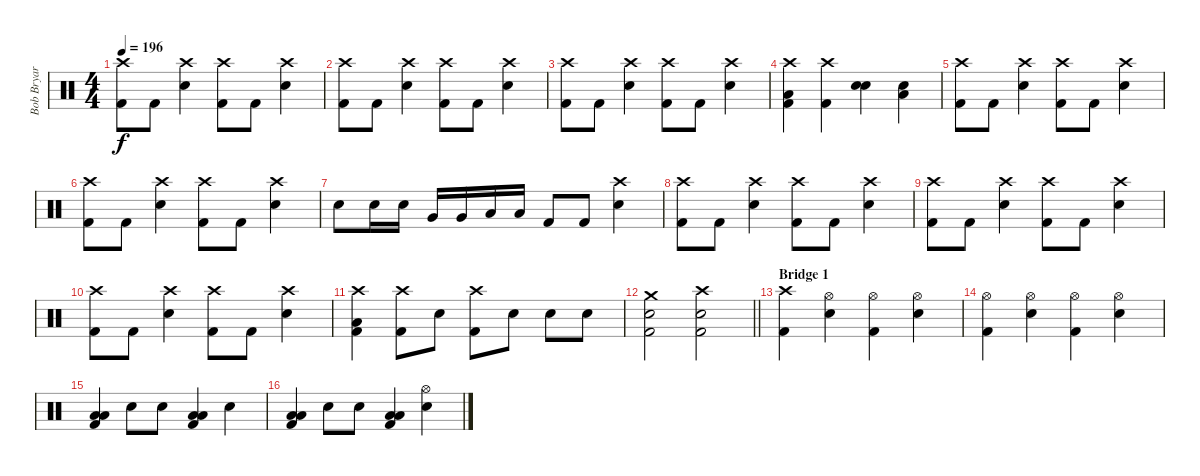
\track ("Bob Bryar (percussion)" "Bob Bryar ") {instrument percussion}
\staff {score}
\articulation defaults
\ts (4 4)
\tempo 196
\clef neutral
\ks c
("Crash high (hit)" "Kick (hit) 2").8{dy f} "Kick (hit) 2".8 ("Crash high (hit)" "Electric Snare (hit)").4 ("Crash high (hit)" "Kick (hit) 2").8 "Kick (hit) 2".8 ("Crash high (hit)" "Electric Snare (hit)").4 |
("Crash high (hit)" "Kick (hit) 2").8 "Kick (hit) 2".8 ("Crash high (hit)" "Electric Snare (hit)").4 ("Crash high (hit)" "Kick (hit) 2").8 "Kick (hit) 2".8 ("Crash high (hit)" "Electric Snare (hit)").4 |
("Crash high (hit)" "Kick (hit) 2").8 "Kick (hit) 2".8 ("Crash high (hit)" "Electric Snare (hit)").4 ("Crash high (hit)" "Kick (hit) 2").8 "Kick (hit) 2".8 ("Crash high (hit)" "Electric Snare (hit)").4 |
("Crash high (hit)" "Low Floor Tom (hit)" "Kick (hit) 2").4 ("Crash high (hit)" "Kick (hit) 2").4 ("Electric Snare (hit)" "Electric Snare (hit)").4 ("Electric Snare (hit)" "Low Floor Tom (hit)").4 |
("Crash high (hit)" "Kick (hit) 2").8 "Kick (hit) 2".8 ("Crash high (hit)" "Electric Snare (hit)").4 ("Crash high (hit)" "Kick (hit) 2").8 "Kick (hit) 2".8 ("Crash high (hit)" "Electric Snare (hit)").4 |
("Crash high (hit)" "Kick (hit) 2").8 "Kick (hit) 2".8 ("Crash high (hit)" "Electric Snare (hit)").4 ("Crash high (hit)" "Kick (hit) 2").8 "Kick (hit) 2".8 ("Crash high (hit)" "Electric Snare (hit)").4 |
"Electric Snare (hit)".8 "Electric Snare (hit)".16 "Electric Snare (hit)".16 "Very Low Tom (hit)".16 "Very Low Tom (hit)".16 "Low Floor Tom (hit)".16 "Low Floor Tom (hit)".16 "Kick (hit) 2".8 "Kick (hit) 2".8 ("Crash high (hit)" "Electric Snare (hit)").4 |
("Crash high (hit)" "Kick (hit) 2").8 "Kick (hit) 2".8 ("Crash high (hit)" "Electric Snare (hit)").4 ("Crash high (hit)" "Kick (hit) 2").8 "Kick (hit) 2".8 ("Crash high (hit)" "Electric Snare (hit)").4 |
("Crash high (hit)" "Kick (hit) 2").8 "Kick (hit) 2".8 ("Crash high (hit)" "Electric Snare (hit)").4 ("Crash high (hit)" "Kick (hit) 2").8 "Kick (hit) 2".8 ("Crash high (hit)" "Electric Snare (hit)").4 |
("Crash high (hit)" "Kick (hit) 2").8 "Kick (hit) 2".8 ("Crash high (hit)" "Electric Snare (hit)").4 ("Crash high (hit)" "Kick (hit) 2").8 "Kick (hit) 2".8 ("Crash high (hit)" "Electric Snare (hit)").4 |
("Crash high (hit)" "Low Floor Tom (hit)" "Kick (hit) 2").4 ("Crash high (hit)" "Kick (hit) 2").8 "Electric Snare (hit)".8 ("Crash high (hit)" "Kick (hit) 2").8 "Electric Snare (hit)".8 "Electric Snare (hit)".8 "Electric Snare (hit)".8 |
\barLineRight lightlight
("Crash medium (hit)" "Electric Snare (hit)" "Kick (hit) 2").2 ("Crash high (hit)" "Electric Snare (hit)" "Kick (hit) 2").2 |
\section ("" "Bridge 1")
("Crash high (hit)" "Kick (hit) 2").4 ("Hi-Hat (open)" "Electric Snare (hit)").4 ("Hi-Hat (open)" "Kick (hit) 2").4 ("Hi-Hat (open)" "Electric Snare (hit)").4 |
("Hi-Hat (open)" "Kick (hit) 2").4 ("Hi-Hat (open)" "Electric Snare (hit)").4 ("Hi-Hat (open)" "Kick (hit) 2").4 ("Hi-Hat (open)" "Electric Snare (hit)").4 |
("Low Floor Tom (hit)" "Low Floor Tom (hit)" "Kick (hit) 2").4 "Electric Snare (hit)".8 "Electric Snare (hit)".8 ("Low Floor Tom (hit)" "Low Floor Tom (hit)" "Kick (hit) 2").4 "Electric Snare (hit)".4 |
("Low Floor Tom (hit)" "Low Floor Tom (hit)" "Kick (hit) 2").4 "Electric Snare (hit)".8 "Electric Snare (hit)".8 ("Low Floor Tom (hit)" "Low Floor Tom (hit)" "Kick (hit) 2").4 ("Hi-Hat (open)" "Electric Snare (hit)").4
